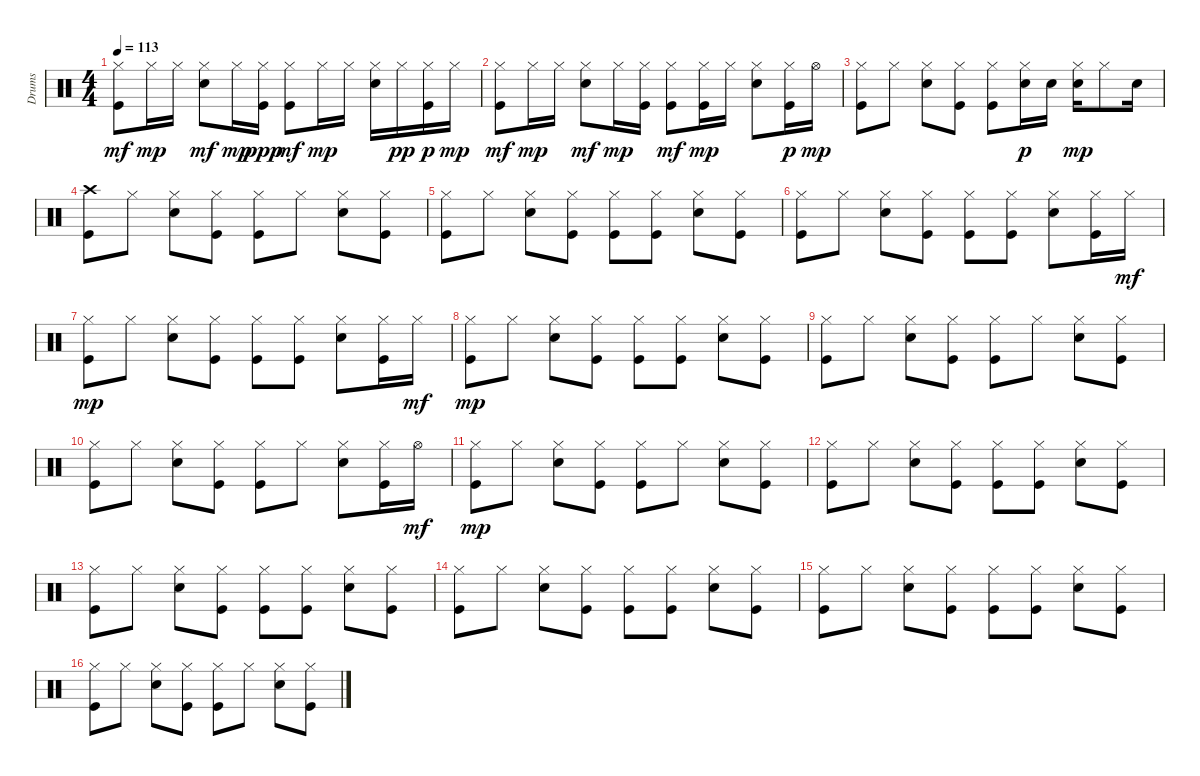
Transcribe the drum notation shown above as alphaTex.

\track ("Drums" "Drums") {instrument percussion}
\staff {score}
\articulation defaults
\ts (4 4)
\tempo 113
\clef neutral
\ks c
("Kick (hit)" "Hi-Hat (closed)").8{dy mf} "Hi-Hat (closed)".16{dy mp} "Hi-Hat (closed)".16 ("Snare (hit) 2" "Hi-Hat (closed)").8{dy mf} "Hi-Hat (closed)".16{dy mp} ("Kick (hit)" "Hi-Hat (closed)").16{dy ppp} ("Kick (hit)" "Hi-Hat (closed)").8{dy mf} "Hi-Hat (closed)".16{dy mp} "Hi-Hat (closed)".16 ("Snare (hit) 2" "Hi-Hat (closed)").16 "Hi-Hat (closed)".16{dy pp} ("Kick (hit)" "Hi-Hat (closed)").16{dy p} "Hi-Hat (closed)".16{dy mp} |
("Kick (hit)" "Hi-Hat (closed)").8{dy mf} "Hi-Hat (closed)".16{dy mp} "Hi-Hat (closed)".16 ("Snare (hit) 2" "Hi-Hat (closed)").8{dy mf} "Hi-Hat (closed)".16{dy mp} ("Kick (hit)" "Hi-Hat (closed)").16 ("Kick (hit)" "Hi-Hat (closed)").8{dy mf} ("Kick (hit)" "Hi-Hat (closed)").16{dy mp} "Hi-Hat (closed)".16 ("Snare (hit) 2" "Hi-Hat (closed)").8 ("Kick (hit)" "Hi-Hat (closed)").16{dy p} "Hi-Hat (open)".16{dy mp} |
("Kick (hit)" "Hi-Hat (closed)").8 "Hi-Hat (closed)".8 ("Snare (hit) 2" "Hi-Hat (closed)").8 ("Kick (hit)" "Hi-Hat (closed)").8 ("Kick (hit)" "Hi-Hat (closed)").8 ("Hi-Hat (closed)" "Snare (hit) 2").16{dy p} "Snare (hit) 2".16 ("Snare (hit) 2" "Hi-Hat (closed)").16{dy mp} "Hi-Hat (closed)".8 "Snare (hit) 2".16 |
("Kick (hit)" "Crash high (hit)").8 "Hi-Hat (closed)".8 ("Snare (hit) 2" "Hi-Hat (closed)").8 ("Kick (hit)" "Hi-Hat (closed)").8 ("Kick (hit)" "Hi-Hat (closed)").8 "Hi-Hat (closed)".8 ("Snare (hit) 2" "Hi-Hat (closed)").8 ("Kick (hit)" "Hi-Hat (closed)").8 |
("Kick (hit)" "Hi-Hat (closed)").8 "Hi-Hat (closed)".8 ("Snare (hit) 2" "Hi-Hat (closed)").8 ("Kick (hit)" "Hi-Hat (closed)").8 ("Kick (hit)" "Hi-Hat (closed)").8 ("Kick (hit)" "Hi-Hat (closed)").8 ("Snare (hit) 2" "Hi-Hat (closed)").8 ("Kick (hit)" "Hi-Hat (closed)").8 |
("Kick (hit)" "Hi-Hat (closed)").8 "Hi-Hat (closed)".8 ("Snare (hit) 2" "Hi-Hat (closed)").8 ("Kick (hit)" "Hi-Hat (closed)").8 ("Kick (hit)" "Hi-Hat (closed)").8 ("Kick (hit)" "Hi-Hat (closed)").8 ("Snare (hit) 2" "Hi-Hat (closed)").8 ("Kick (hit)" "Hi-Hat (closed)").16 "Hi-Hat (closed)".16{dy mf} |
("Kick (hit)" "Hi-Hat (closed)").8{dy mp} "Hi-Hat (closed)".8 ("Snare (hit) 2" "Hi-Hat (closed)").8 ("Kick (hit)" "Hi-Hat (closed)").8 ("Kick (hit)" "Hi-Hat (closed)").8 ("Kick (hit)" "Hi-Hat (closed)").8 ("Snare (hit) 2" "Hi-Hat (closed)").8 ("Kick (hit)" "Hi-Hat (closed)").16 "Hi-Hat (closed)".16{dy mf} |
("Kick (hit)" "Hi-Hat (closed)").8{dy mp} "Hi-Hat (closed)".8 ("Snare (hit) 2" "Hi-Hat (closed)").8 ("Kick (hit)" "Hi-Hat (closed)").8 ("Kick (hit)" "Hi-Hat (closed)").8 ("Kick (hit)" "Hi-Hat (closed)").8 ("Snare (hit) 2" "Hi-Hat (closed)").8 ("Kick (hit)" "Hi-Hat (closed)").8 |
("Kick (hit)" "Hi-Hat (closed)").8 "Hi-Hat (closed)".8 ("Snare (hit) 2" "Hi-Hat (closed)").8 ("Kick (hit)" "Hi-Hat (closed)").8 ("Kick (hit)" "Hi-Hat (closed)").8 "Hi-Hat (closed)".8 ("Snare (hit) 2" "Hi-Hat (closed)").8 ("Kick (hit)" "Hi-Hat (closed)").8 |
("Kick (hit)" "Hi-Hat (closed)").8 "Hi-Hat (closed)".8 ("Snare (hit) 2" "Hi-Hat (closed)").8 ("Kick (hit)" "Hi-Hat (closed)").8 ("Kick (hit)" "Hi-Hat (closed)").8 "Hi-Hat (closed)".8 ("Snare (hit) 2" "Hi-Hat (closed)").8 ("Kick (hit)" "Hi-Hat (closed)").16 "Hi-Hat (open)".16{dy mf} |
("Kick (hit)" "Hi-Hat (closed)").8{dy mp} "Hi-Hat (closed)".8 ("Snare (hit) 2" "Hi-Hat (closed)").8 ("Kick (hit)" "Hi-Hat (closed)").8 ("Kick (hit)" "Hi-Hat (closed)").8 "Hi-Hat (closed)".8 ("Snare (hit) 2" "Hi-Hat (closed)").8 ("Kick (hit)" "Hi-Hat (closed)").8 |
("Kick (hit)" "Hi-Hat (closed)").8 "Hi-Hat (closed)".8 ("Snare (hit) 2" "Hi-Hat (closed)").8 ("Kick (hit)" "Hi-Hat (closed)").8 ("Kick (hit)" "Hi-Hat (closed)").8 ("Kick (hit)" "Hi-Hat (closed)").8 ("Snare (hit) 2" "Hi-Hat (closed)").8 ("Kick (hit)" "Hi-Hat (closed)").8 |
("Kick (hit)" "Hi-Hat (closed)").8 "Hi-Hat (closed)".8 ("Snare (hit) 2" "Hi-Hat (closed)").8 ("Kick (hit)" "Hi-Hat (closed)").8 ("Kick (hit)" "Hi-Hat (closed)").8 ("Kick (hit)" "Hi-Hat (closed)").8 ("Snare (hit) 2" "Hi-Hat (closed)").8 ("Kick (hit)" "Hi-Hat (closed)").8 |
("Kick (hit)" "Hi-Hat (closed)").8 "Hi-Hat (closed)".8 ("Snare (hit) 2" "Hi-Hat (closed)").8 ("Kick (hit)" "Hi-Hat (closed)").8 ("Kick (hit)" "Hi-Hat (closed)").8 ("Kick (hit)" "Hi-Hat (closed)").8 ("Snare (hit) 2" "Hi-Hat (closed)").8 ("Kick (hit)" "Hi-Hat (closed)").8 |
("Kick (hit)" "Hi-Hat (closed)").8 "Hi-Hat (closed)".8 ("Snare (hit) 2" "Hi-Hat (closed)").8 ("Kick (hit)" "Hi-Hat (closed)").8 ("Kick (hit)" "Hi-Hat (closed)").8 ("Kick (hit)" "Hi-Hat (closed)").8 ("Snare (hit) 2" "Hi-Hat (closed)").8 ("Kick (hit)" "Hi-Hat (closed)").8 |
("Kick (hit)" "Hi-Hat (closed)").8 "Hi-Hat (closed)".8 ("Snare (hit) 2" "Hi-Hat (closed)").8 ("Kick (hit)" "Hi-Hat (closed)").8 ("Kick (hit)" "Hi-Hat (closed)").8 "Hi-Hat (closed)".8 ("Snare (hit) 2" "Hi-Hat (closed)").8 ("Kick (hit)" "Hi-Hat (closed)").8
